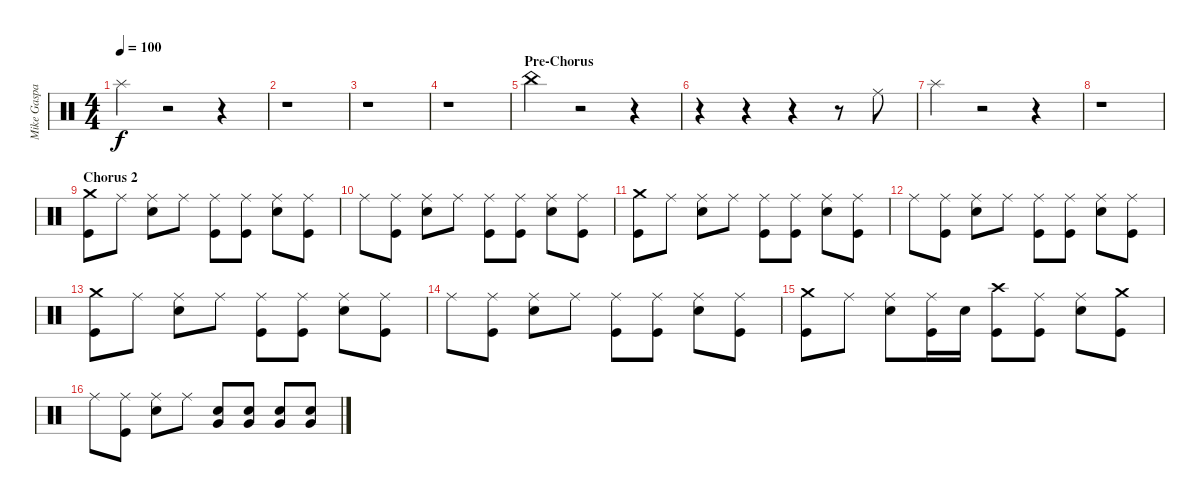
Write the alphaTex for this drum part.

\track ("Mike Gaspar" "Mike Gaspa") {instrument percussion}
\staff {score}
\articulation defaults
\ts (4 4)
\tempo 100
\clef neutral
\ks c "Splash (hit)".4{dy f}
r.2 r.4 |
r.1 |
r.1 |
r.1 |
\section ("" "Pre-Chorus")
"China (hit)".4 r.2 r.4 |
r.4 r.4 r.4 r.8 "Ride (middle)".8 |
"Splash (hit)".4 r.2 r.4 |
r.1 |
\section ("" "Chorus 2")
("Crash medium (hit)" "Kick (hit)").8 "Ride (middle)".8 ("Ride (middle)" "Electric Snare (hit)").8 "Ride (middle)".8 ("Ride (middle)" "Kick (hit)").8 ("Ride (middle)" "Kick (hit)").8 ("Ride (middle)" "Electric Snare (hit)").8 ("Ride (middle)" "Kick (hit)").8 |
"Ride (middle)".8 ("Ride (middle)" "Kick (hit)").8 ("Ride (middle)" "Electric Snare (hit)").8 "Ride (middle)".8 ("Ride (middle)" "Kick (hit)").8 ("Ride (middle)" "Kick (hit)").8 ("Ride (middle)" "Electric Snare (hit)").8 ("Ride (middle)" "Kick (hit)").8 |
("Crash medium (hit)" "Kick (hit)").8 "Ride (middle)".8 ("Ride (middle)" "Electric Snare (hit)").8 "Ride (middle)".8 ("Ride (middle)" "Kick (hit)").8 ("Ride (middle)" "Kick (hit)").8 ("Ride (middle)" "Electric Snare (hit)").8 ("Ride (middle)" "Kick (hit)").8 |
"Ride (middle)".8 ("Ride (middle)" "Kick (hit)").8 ("Ride (middle)" "Electric Snare (hit)").8 "Ride (middle)".8 ("Ride (middle)" "Kick (hit)").8 ("Ride (middle)" "Kick (hit)").8 ("Ride (middle)" "Electric Snare (hit)").8 ("Ride (middle)" "Kick (hit)").8 |
("Crash medium (hit)" "Kick (hit)").8 "Ride (middle)".8 ("Ride (middle)" "Electric Snare (hit)").8 "Ride (middle)".8 ("Ride (middle)" "Kick (hit)").8 ("Ride (middle)" "Kick (hit)").8 ("Ride (middle)" "Electric Snare (hit)").8 ("Ride (middle)" "Kick (hit)").8 |
"Ride (middle)".8 ("Ride (middle)" "Kick (hit)").8 ("Ride (middle)" "Electric Snare (hit)").8 "Ride (middle)".8 ("Ride (middle)" "Kick (hit)").8 ("Ride (middle)" "Kick (hit)").8 ("Ride (middle)" "Electric Snare (hit)").8 ("Ride (middle)" "Kick (hit)").8 |
("Crash medium (hit)" "Kick (hit)").8 "Ride (middle)".8 ("Ride (middle)" "Electric Snare (hit)").8 ("Ride (middle)" "Kick (hit)").16 "Electric Snare (hit)".16 ("Crash high (hit)" "Kick (hit)").8 ("Ride (middle)" "Kick (hit)").8 ("Ride (middle)" "Electric Snare (hit)").8 ("Crash medium (hit)" "Kick (hit)").8 |
"Ride (middle)".8 ("Ride (middle)" "Kick (hit)").8 ("Ride (middle)" "Electric Snare (hit)").8 "Ride (middle)".8 ("Very Low Tom (hit)" "Electric Snare (hit)").8 ("Very Low Tom (hit)" "Electric Snare (hit)").8 ("Very Low Tom (hit)" "Electric Snare (hit)").8 ("Very Low Tom (hit)" "Electric Snare (hit)").8
